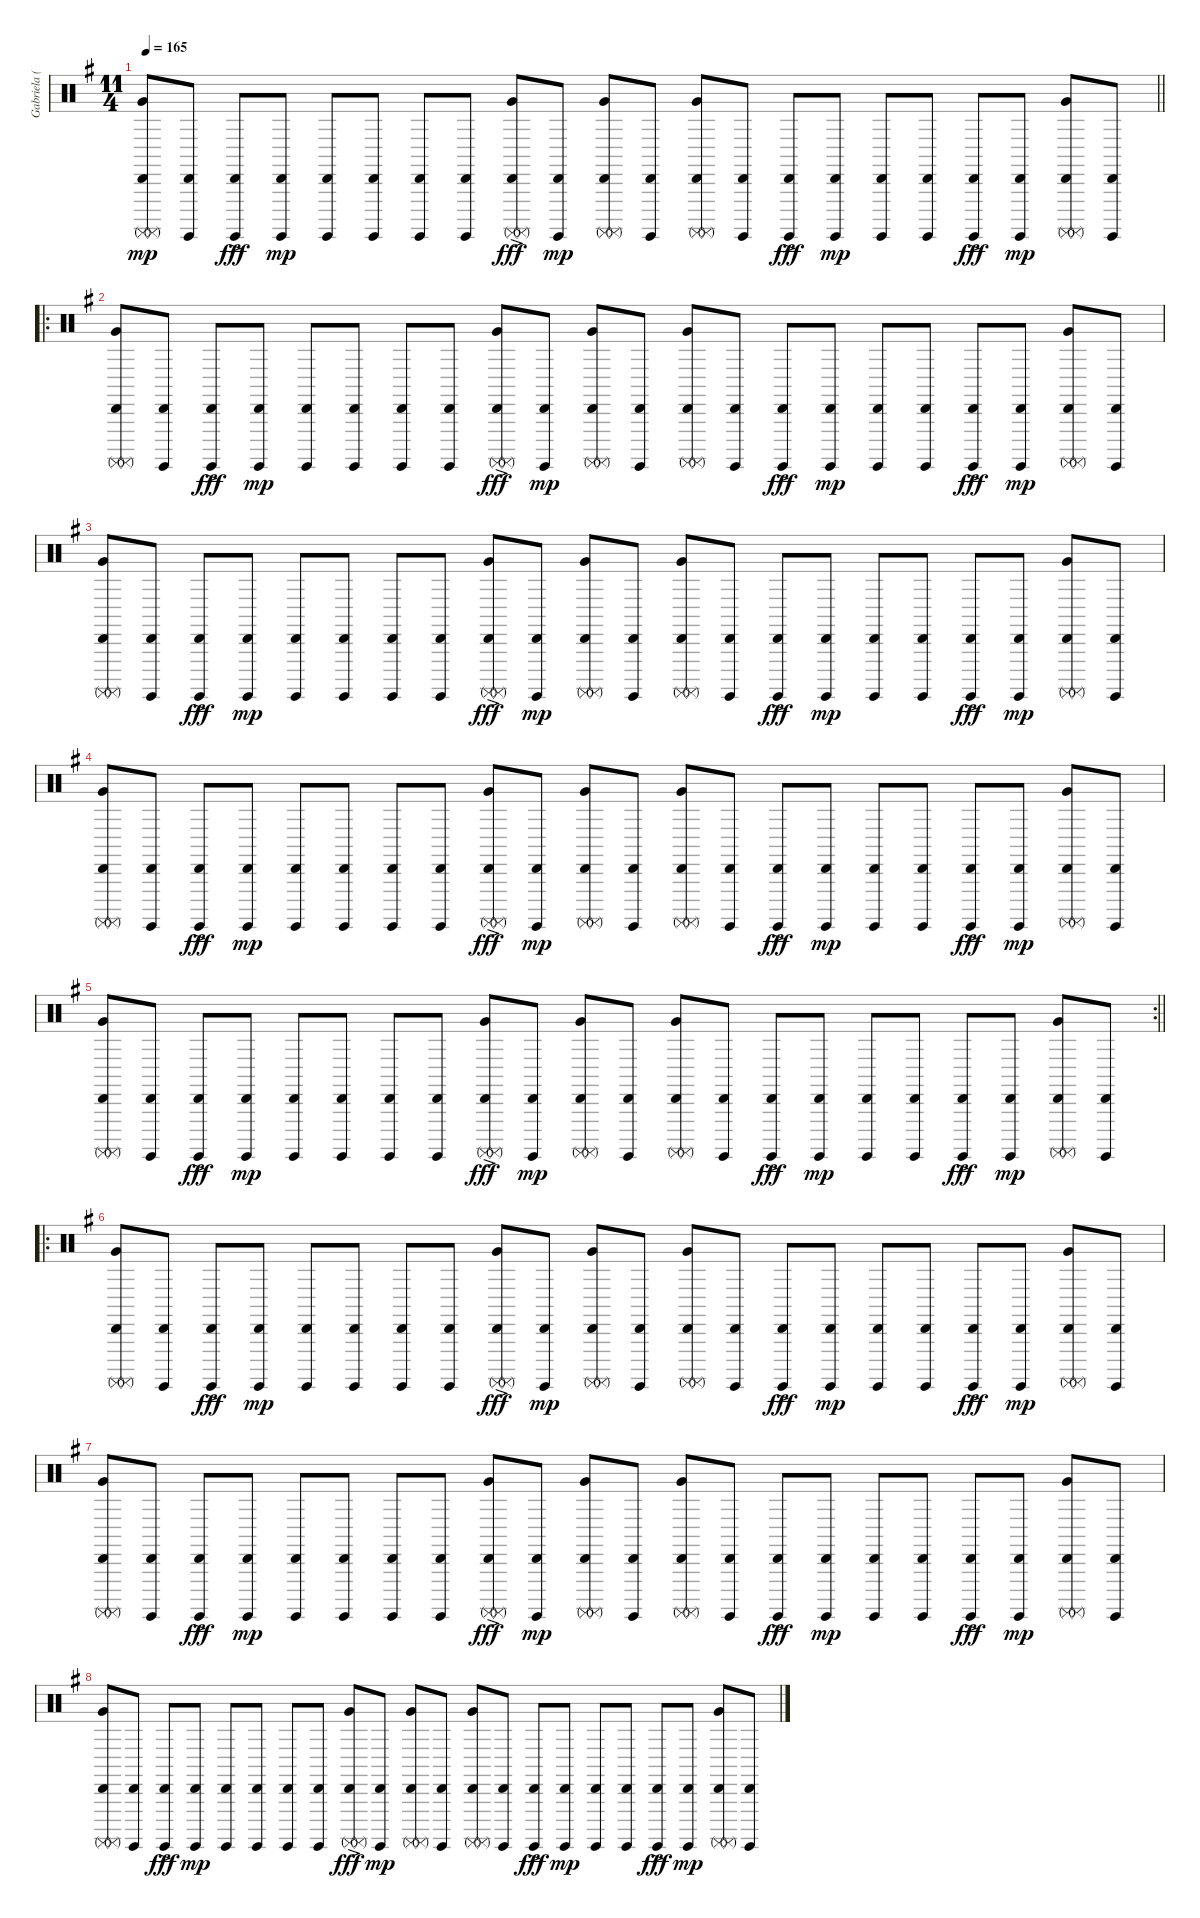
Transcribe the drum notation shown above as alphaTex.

\track ("Gabriela (Guitar Percussion)" "Gabriela (") {instrument percussion}
\staff {score}
\articulation defaults
\ts (11 4)
\tempo 165
\clef neutral
\barLineRight lightlight
\ks g
("Very Low Tom (hit)" "Surdo (mute)" "Surdo (mute)" "Cabasa (hit)").8{dy mp} ("Surdo (hit)" "Cabasa (hit)").8 ("Surdo (hit)" "Cabasa (hit)"{ac}).8{dy fff} ("Surdo (hit)" "Cabasa (hit)").8{dy mp} ("Surdo (hit)" "Cabasa (hit)").8 ("Surdo (hit)" "Cabasa (hit)").8 ("Surdo (hit)" "Cabasa (hit)").8 ("Surdo (hit)" "Cabasa (hit)").8 ("Very Low Tom (hit)" "Surdo (mute)" "Surdo (mute)" "Cabasa (hit)"{ac}).8{dy fff} ("Surdo (hit)" "Cabasa (hit)").8{dy mp} ("Very Low Tom (hit)" "Surdo (mute)" "Surdo (mute)" "Cabasa (hit)").8 ("Surdo (hit)" "Cabasa (hit)").8 ("Very Low Tom (hit)" "Surdo (mute)" "Surdo (mute)" "Cabasa (hit)").8 ("Surdo (hit)" "Cabasa (hit)").8 ("Surdo (hit)" "Cabasa (hit)"{ac}).8{dy fff} ("Surdo (hit)" "Cabasa (hit)").8{dy mp} ("Surdo (hit)" "Cabasa (hit)").8 ("Surdo (hit)" "Cabasa (hit)").8 ("Surdo (hit)" "Cabasa (hit)"{ac}).8{dy fff} ("Surdo (hit)" "Cabasa (hit)").8{dy mp} ("Very Low Tom (hit)" "Surdo (mute)" "Surdo (mute)" "Cabasa (hit)").8 ("Surdo (hit)" "Cabasa (hit)").8 |
\ro
("Very Low Tom (hit)" "Surdo (mute)" "Surdo (mute)" "Cabasa (hit)").8 ("Surdo (hit)" "Cabasa (hit)").8 ("Surdo (hit)" "Cabasa (hit)"{ac}).8{dy fff} ("Surdo (hit)" "Cabasa (hit)").8{dy mp} ("Surdo (hit)" "Cabasa (hit)").8 ("Surdo (hit)" "Cabasa (hit)").8 ("Surdo (hit)" "Cabasa (hit)").8 ("Surdo (hit)" "Cabasa (hit)").8 ("Very Low Tom (hit)" "Surdo (mute)" "Surdo (mute)" "Cabasa (hit)"{ac}).8{dy fff} ("Surdo (hit)" "Cabasa (hit)").8{dy mp} ("Very Low Tom (hit)" "Surdo (mute)" "Surdo (mute)" "Cabasa (hit)").8 ("Surdo (hit)" "Cabasa (hit)").8 ("Very Low Tom (hit)" "Surdo (mute)" "Surdo (mute)" "Cabasa (hit)").8 ("Surdo (hit)" "Cabasa (hit)").8 ("Surdo (hit)" "Cabasa (hit)"{ac}).8{dy fff} ("Surdo (hit)" "Cabasa (hit)").8{dy mp} ("Surdo (hit)" "Cabasa (hit)").8 ("Surdo (hit)" "Cabasa (hit)").8 ("Surdo (hit)" "Cabasa (hit)"{ac}).8{dy fff} ("Surdo (hit)" "Cabasa (hit)").8{dy mp} ("Very Low Tom (hit)" "Surdo (mute)" "Surdo (mute)" "Cabasa (hit)").8 ("Surdo (hit)" "Cabasa (hit)").8 |
("Very Low Tom (hit)" "Surdo (mute)" "Surdo (mute)" "Cabasa (hit)").8 ("Surdo (hit)" "Cabasa (hit)").8 ("Surdo (hit)" "Cabasa (hit)"{ac}).8{dy fff} ("Surdo (hit)" "Cabasa (hit)").8{dy mp} ("Surdo (hit)" "Cabasa (hit)").8 ("Surdo (hit)" "Cabasa (hit)").8 ("Surdo (hit)" "Cabasa (hit)").8 ("Surdo (hit)" "Cabasa (hit)").8 ("Very Low Tom (hit)" "Surdo (mute)" "Surdo (mute)" "Cabasa (hit)"{ac}).8{dy fff} ("Surdo (hit)" "Cabasa (hit)").8{dy mp} ("Very Low Tom (hit)" "Surdo (mute)" "Surdo (mute)" "Cabasa (hit)").8 ("Surdo (hit)" "Cabasa (hit)").8 ("Very Low Tom (hit)" "Surdo (mute)" "Surdo (mute)" "Cabasa (hit)").8 ("Surdo (hit)" "Cabasa (hit)").8 ("Surdo (hit)" "Cabasa (hit)"{ac}).8{dy fff} ("Surdo (hit)" "Cabasa (hit)").8{dy mp} ("Surdo (hit)" "Cabasa (hit)").8 ("Surdo (hit)" "Cabasa (hit)").8 ("Surdo (hit)" "Cabasa (hit)"{ac}).8{dy fff} ("Surdo (hit)" "Cabasa (hit)").8{dy mp} ("Very Low Tom (hit)" "Surdo (mute)" "Surdo (mute)" "Cabasa (hit)").8 ("Surdo (hit)" "Cabasa (hit)").8 |
("Very Low Tom (hit)" "Surdo (mute)" "Surdo (mute)" "Cabasa (hit)").8 ("Surdo (hit)" "Cabasa (hit)").8 ("Surdo (hit)" "Cabasa (hit)"{ac}).8{dy fff} ("Surdo (hit)" "Cabasa (hit)").8{dy mp} ("Surdo (hit)" "Cabasa (hit)").8 ("Surdo (hit)" "Cabasa (hit)").8 ("Surdo (hit)" "Cabasa (hit)").8 ("Surdo (hit)" "Cabasa (hit)").8 ("Very Low Tom (hit)" "Surdo (mute)" "Surdo (mute)" "Cabasa (hit)"{ac}).8{dy fff} ("Surdo (hit)" "Cabasa (hit)").8{dy mp} ("Very Low Tom (hit)" "Surdo (mute)" "Surdo (mute)" "Cabasa (hit)").8 ("Surdo (hit)" "Cabasa (hit)").8 ("Very Low Tom (hit)" "Surdo (mute)" "Surdo (mute)" "Cabasa (hit)").8 ("Surdo (hit)" "Cabasa (hit)").8 ("Surdo (hit)" "Cabasa (hit)"{ac}).8{dy fff} ("Surdo (hit)" "Cabasa (hit)").8{dy mp} ("Surdo (hit)" "Cabasa (hit)").8 ("Surdo (hit)" "Cabasa (hit)").8 ("Surdo (hit)" "Cabasa (hit)"{ac}).8{dy fff} ("Surdo (hit)" "Cabasa (hit)").8{dy mp} ("Very Low Tom (hit)" "Surdo (mute)" "Surdo (mute)" "Cabasa (hit)").8 ("Surdo (hit)" "Cabasa (hit)").8 |
\rc 2
\barLineRight lightlight
("Very Low Tom (hit)" "Surdo (mute)" "Surdo (mute)" "Cabasa (hit)").8 ("Surdo (hit)" "Cabasa (hit)").8 ("Surdo (hit)" "Cabasa (hit)"{ac}).8{dy fff} ("Surdo (hit)" "Cabasa (hit)").8{dy mp} ("Surdo (hit)" "Cabasa (hit)").8 ("Surdo (hit)" "Cabasa (hit)").8 ("Surdo (hit)" "Cabasa (hit)").8 ("Surdo (hit)" "Cabasa (hit)").8 ("Very Low Tom (hit)" "Surdo (mute)" "Surdo (mute)" "Cabasa (hit)"{ac}).8{dy fff} ("Surdo (hit)" "Cabasa (hit)").8{dy mp} ("Very Low Tom (hit)" "Surdo (mute)" "Surdo (mute)" "Cabasa (hit)").8 ("Surdo (hit)" "Cabasa (hit)").8 ("Very Low Tom (hit)" "Surdo (mute)" "Surdo (mute)" "Cabasa (hit)").8 ("Surdo (hit)" "Cabasa (hit)").8 ("Surdo (hit)" "Cabasa (hit)"{ac}).8{dy fff} ("Surdo (hit)" "Cabasa (hit)").8{dy mp} ("Surdo (hit)" "Cabasa (hit)").8 ("Surdo (hit)" "Cabasa (hit)").8 ("Surdo (hit)" "Cabasa (hit)"{ac}).8{dy fff} ("Surdo (hit)" "Cabasa (hit)").8{dy mp} ("Very Low Tom (hit)" "Surdo (mute)" "Surdo (mute)" "Cabasa (hit)").8 ("Surdo (hit)" "Cabasa (hit)").8 |
\ro
("Very Low Tom (hit)" "Surdo (mute)" "Surdo (mute)" "Cabasa (hit)").8 ("Surdo (hit)" "Cabasa (hit)").8 ("Surdo (hit)" "Cabasa (hit)"{ac}).8{dy fff} ("Surdo (hit)" "Cabasa (hit)").8{dy mp} ("Surdo (hit)" "Cabasa (hit)").8 ("Surdo (hit)" "Cabasa (hit)").8 ("Surdo (hit)" "Cabasa (hit)").8 ("Surdo (hit)" "Cabasa (hit)").8 ("Very Low Tom (hit)" "Surdo (mute)" "Surdo (mute)" "Cabasa (hit)"{ac}).8{dy fff} ("Surdo (hit)" "Cabasa (hit)").8{dy mp} ("Very Low Tom (hit)" "Surdo (mute)" "Surdo (mute)" "Cabasa (hit)").8 ("Surdo (hit)" "Cabasa (hit)").8 ("Very Low Tom (hit)" "Surdo (mute)" "Surdo (mute)" "Cabasa (hit)").8 ("Surdo (hit)" "Cabasa (hit)").8 ("Surdo (hit)" "Cabasa (hit)"{ac}).8{dy fff} ("Surdo (hit)" "Cabasa (hit)").8{dy mp} ("Surdo (hit)" "Cabasa (hit)").8 ("Surdo (hit)" "Cabasa (hit)").8 ("Surdo (hit)" "Cabasa (hit)"{ac}).8{dy fff} ("Surdo (hit)" "Cabasa (hit)").8{dy mp} ("Very Low Tom (hit)" "Surdo (mute)" "Surdo (mute)" "Cabasa (hit)").8 ("Surdo (hit)" "Cabasa (hit)").8 |
("Very Low Tom (hit)" "Surdo (mute)" "Surdo (mute)" "Cabasa (hit)").8 ("Surdo (hit)" "Cabasa (hit)").8 ("Surdo (hit)" "Cabasa (hit)"{ac}).8{dy fff} ("Surdo (hit)" "Cabasa (hit)").8{dy mp} ("Surdo (hit)" "Cabasa (hit)").8 ("Surdo (hit)" "Cabasa (hit)").8 ("Surdo (hit)" "Cabasa (hit)").8 ("Surdo (hit)" "Cabasa (hit)").8 ("Very Low Tom (hit)" "Surdo (mute)" "Surdo (mute)" "Cabasa (hit)"{ac}).8{dy fff} ("Surdo (hit)" "Cabasa (hit)").8{dy mp} ("Very Low Tom (hit)" "Surdo (mute)" "Surdo (mute)" "Cabasa (hit)").8 ("Surdo (hit)" "Cabasa (hit)").8 ("Very Low Tom (hit)" "Surdo (mute)" "Surdo (mute)" "Cabasa (hit)").8 ("Surdo (hit)" "Cabasa (hit)").8 ("Surdo (hit)" "Cabasa (hit)"{ac}).8{dy fff} ("Surdo (hit)" "Cabasa (hit)").8{dy mp} ("Surdo (hit)" "Cabasa (hit)").8 ("Surdo (hit)" "Cabasa (hit)").8 ("Surdo (hit)" "Cabasa (hit)"{ac}).8{dy fff} ("Surdo (hit)" "Cabasa (hit)").8{dy mp} ("Very Low Tom (hit)" "Surdo (mute)" "Surdo (mute)" "Cabasa (hit)").8 ("Surdo (hit)" "Cabasa (hit)").8 |
("Very Low Tom (hit)" "Surdo (mute)" "Surdo (mute)" "Cabasa (hit)").8 ("Surdo (hit)" "Cabasa (hit)").8 ("Surdo (hit)" "Cabasa (hit)"{ac}).8{dy fff} ("Surdo (hit)" "Cabasa (hit)").8{dy mp} ("Surdo (hit)" "Cabasa (hit)").8 ("Surdo (hit)" "Cabasa (hit)").8 ("Surdo (hit)" "Cabasa (hit)").8 ("Surdo (hit)" "Cabasa (hit)").8 ("Very Low Tom (hit)" "Surdo (mute)" "Surdo (mute)" "Cabasa (hit)"{ac}).8{dy fff} ("Surdo (hit)" "Cabasa (hit)").8{dy mp} ("Very Low Tom (hit)" "Surdo (mute)" "Surdo (mute)" "Cabasa (hit)").8 ("Surdo (hit)" "Cabasa (hit)").8 ("Very Low Tom (hit)" "Surdo (mute)" "Surdo (mute)" "Cabasa (hit)").8 ("Surdo (hit)" "Cabasa (hit)").8 ("Surdo (hit)" "Cabasa (hit)"{ac}).8{dy fff} ("Surdo (hit)" "Cabasa (hit)").8{dy mp} ("Surdo (hit)" "Cabasa (hit)").8 ("Surdo (hit)" "Cabasa (hit)").8 ("Surdo (hit)" "Cabasa (hit)"{ac}).8{dy fff} ("Surdo (hit)" "Cabasa (hit)").8{dy mp} ("Very Low Tom (hit)" "Surdo (mute)" "Surdo (mute)" "Cabasa (hit)").8 ("Surdo (hit)" "Cabasa (hit)").8
